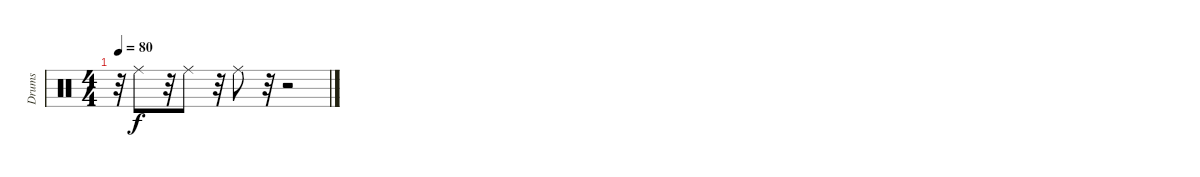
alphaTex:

\track ("Drums" "Drums") {instrument percussion}
\staff {score}
\articulation defaults
\ts (4 4)
\tempo 80
\clef neutral
\ks c
r.32{dy f} "Ride (middle)".8 r.32 "Ride (middle)".8 r.32 "Ride (middle)".8 r.32 r.2
